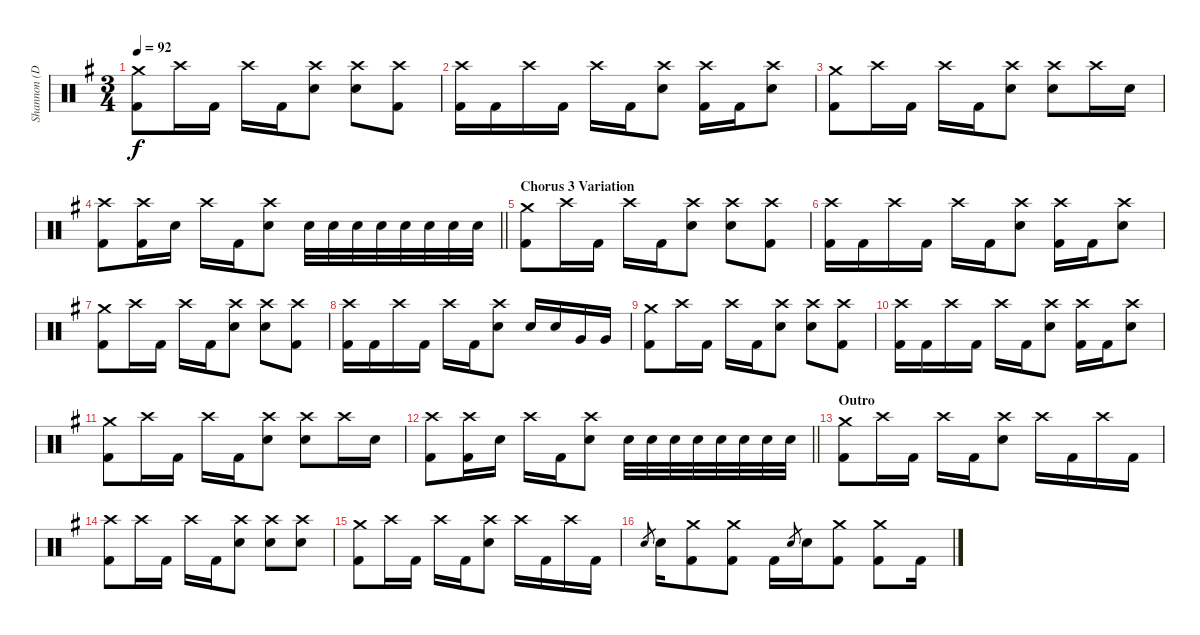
\track ("Shannon (Drums)" "Shannon (D") {instrument percussion}
\staff {score}
\articulation defaults
\ts (3 4)
\tempo 92
\clef neutral
\ks g
("Crash medium (hit)" "Kick (hit) 2").8{dy f} "Crash high (hit)".16 "Kick (hit) 2".16 "Crash high (hit)".16 "Kick (hit) 2".16 ("Crash high (hit)" "Electric Snare (hit)").8 ("Crash high (hit)" "Electric Snare (hit)").8 ("Crash high (hit)" "Kick (hit) 2").8 |
("Crash high (hit)" "Kick (hit) 2").16 "Kick (hit) 2".16 "Crash high (hit)".16 "Kick (hit) 2".16 "Crash high (hit)".16 "Kick (hit) 2".16 ("Crash high (hit)" "Electric Snare (hit)").8 ("Crash high (hit)" "Kick (hit) 2").16 "Kick (hit) 2".16 ("Crash high (hit)" "Electric Snare (hit)").8 |
("Crash medium (hit)" "Kick (hit) 2").8 "Crash high (hit)".16 "Kick (hit) 2".16 "Crash high (hit)".16 "Kick (hit) 2".16 ("Crash high (hit)" "Electric Snare (hit)").8 ("Crash high (hit)" "Electric Snare (hit)").8 "Crash high (hit)".16 "Electric Snare (hit)".16 |
\barLineRight lightlight
("Crash high (hit)" "Kick (hit) 2").8 ("Crash high (hit)" "Kick (hit) 2").16 "Electric Snare (hit)".16 "Crash high (hit)".16 "Kick (hit) 2".16 ("Crash high (hit)" "Electric Snare (hit)").8 "Electric Snare (hit)".32 "Electric Snare (hit)".32 "Electric Snare (hit)".32 "Electric Snare (hit)".32 "Electric Snare (hit)".32 "Electric Snare (hit)".32 "Electric Snare (hit)".32 "Electric Snare (hit)".32 |
\section ("" "Chorus 3 Variation")
("Crash medium (hit)" "Kick (hit) 2").8 "Crash high (hit)".16 "Kick (hit) 2".16 "Crash high (hit)".16 "Kick (hit) 2".16 ("Crash high (hit)" "Electric Snare (hit)").8 ("Crash high (hit)" "Electric Snare (hit)").8 ("Crash high (hit)" "Kick (hit) 2").8 |
("Crash high (hit)" "Kick (hit) 2").16 "Kick (hit) 2".16 "Crash high (hit)".16 "Kick (hit) 2".16 "Crash high (hit)".16 "Kick (hit) 2".16 ("Crash high (hit)" "Electric Snare (hit)").8 ("Crash high (hit)" "Kick (hit) 2").16 "Kick (hit) 2".16 ("Crash high (hit)" "Electric Snare (hit)").8 |
("Crash medium (hit)" "Kick (hit) 2").8 "Crash high (hit)".16 "Kick (hit) 2".16 "Crash high (hit)".16 "Kick (hit) 2".16 ("Crash high (hit)" "Electric Snare (hit)").8 ("Crash high (hit)" "Electric Snare (hit)").8 ("Crash high (hit)" "Kick (hit) 2").8 |
("Crash high (hit)" "Kick (hit) 2").16 "Kick (hit) 2".16 "Crash high (hit)".16 "Kick (hit) 2".16 "Crash high (hit)".16 "Kick (hit) 2".16 ("Crash high (hit)" "Electric Snare (hit)").8 "Electric Snare (hit)".16 "Electric Snare (hit)".16 "Very Low Tom (hit)".16 "Very Low Tom (hit)".16 |
("Crash medium (hit)" "Kick (hit) 2").8 "Crash high (hit)".16 "Kick (hit) 2".16 "Crash high (hit)".16 "Kick (hit) 2".16 ("Crash high (hit)" "Electric Snare (hit)").8 ("Crash high (hit)" "Electric Snare (hit)").8 ("Crash high (hit)" "Kick (hit) 2").8 |
("Crash high (hit)" "Kick (hit) 2").16 "Kick (hit) 2".16 "Crash high (hit)".16 "Kick (hit) 2".16 "Crash high (hit)".16 "Kick (hit) 2".16 ("Crash high (hit)" "Electric Snare (hit)").8 ("Crash high (hit)" "Kick (hit) 2").16 "Kick (hit) 2".16 ("Crash high (hit)" "Electric Snare (hit)").8 |
("Crash medium (hit)" "Kick (hit) 2").8 "Crash high (hit)".16 "Kick (hit) 2".16 "Crash high (hit)".16 "Kick (hit) 2".16 ("Crash high (hit)" "Electric Snare (hit)").8 ("Crash high (hit)" "Electric Snare (hit)").8 "Crash high (hit)".16 "Electric Snare (hit)".16 |
\barLineRight lightlight
("Crash high (hit)" "Kick (hit) 2").8 ("Crash high (hit)" "Kick (hit) 2").16 "Electric Snare (hit)".16 "Crash high (hit)".16 "Kick (hit) 2".16 ("Crash high (hit)" "Electric Snare (hit)").8 "Electric Snare (hit)".32 "Electric Snare (hit)".32 "Electric Snare (hit)".32 "Electric Snare (hit)".32 "Electric Snare (hit)".32 "Electric Snare (hit)".32 "Electric Snare (hit)".32 "Electric Snare (hit)".32 |
\section ("" "Outro")
("Crash medium (hit)" "Kick (hit) 2").8 "Crash high (hit)".16 "Kick (hit) 2".16 "Crash high (hit)".16 "Kick (hit) 2".16 ("Crash high (hit)" "Electric Snare (hit)").8 "Crash high (hit)".16 "Kick (hit) 2".16 "Crash high (hit)".16 "Kick (hit) 2".16 |
("Crash high (hit)" "Kick (hit) 2").8 "Crash high (hit)".16 "Kick (hit) 2".16 "Crash high (hit)".16 "Kick (hit) 2".16 ("Crash high (hit)" "Electric Snare (hit)").8 ("Crash high (hit)" "Electric Snare (hit)").8 ("Crash high (hit)" "Electric Snare (hit)").8 |
("Crash medium (hit)" "Kick (hit) 2").8 "Crash high (hit)".16 "Kick (hit) 2".16 "Crash high (hit)".16 "Kick (hit) 2".16 ("Crash high (hit)" "Electric Snare (hit)").8 "Crash high (hit)".16 "Kick (hit) 2".16 "Crash high (hit)".16 "Kick (hit) 2".16 |
"Electric Snare (hit)".8{gr} "Electric Snare (hit)".16 ("Crash medium (hit)" "Kick (hit) 2").8 ("Crash medium (hit)" "Kick (hit) 2").8 "Kick (hit) 2".16 "Electric Snare (hit)".8{gr} "Electric Snare (hit)".16 ("Crash medium (hit)" "Kick (hit) 2").8 ("Crash medium (hit)" "Kick (hit) 2").8 "Kick (hit) 2".16
